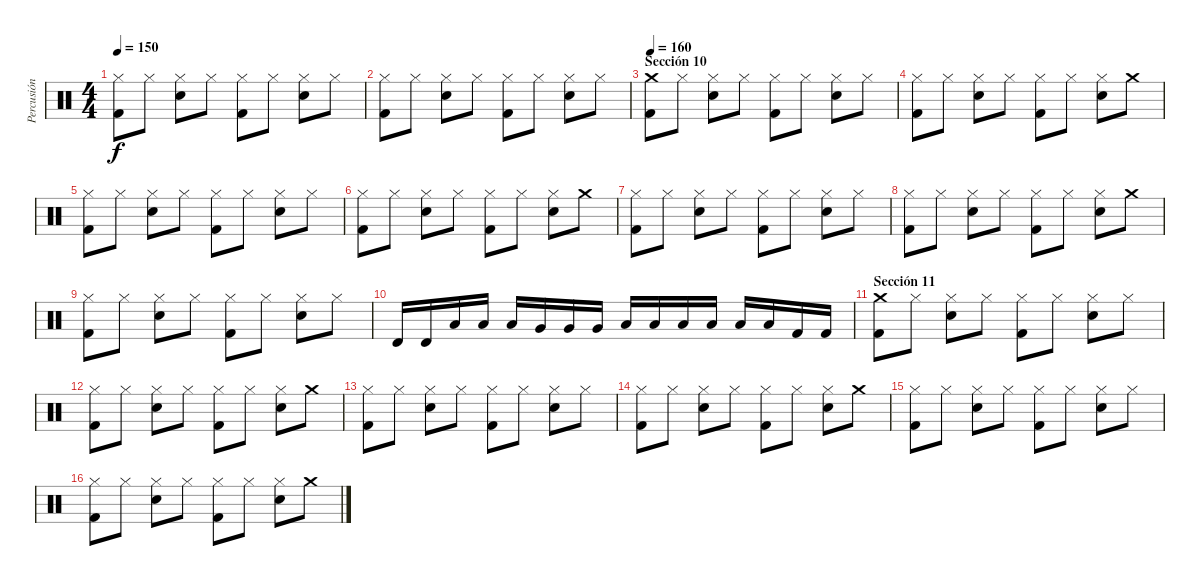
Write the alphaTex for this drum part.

\track ("Percusión" "Percusión") {instrument percussion}
\staff {score}
\articulation defaults
\ts (4 4)
\tempo 150
\clef neutral
\ks c
("Hi-Hat (closed)" "Kick (hit) 2").8{dy f} "Hi-Hat (closed)".8 ("Hi-Hat (closed)" "Snare (hit) 2").8 "Hi-Hat (closed)".8 ("Hi-Hat (closed)" "Kick (hit) 2").8 "Hi-Hat (closed)".8 ("Hi-Hat (closed)" "Snare (hit) 2").8 "Hi-Hat (closed)".8 |
("Hi-Hat (closed)" "Kick (hit) 2").8 "Hi-Hat (closed)".8 ("Hi-Hat (closed)" "Snare (hit) 2").8 "Hi-Hat (closed)".8 ("Hi-Hat (closed)" "Kick (hit) 2").8 "Hi-Hat (closed)".8 ("Hi-Hat (closed)" "Snare (hit) 2").8 "Hi-Hat (closed)".8 |
\section ("" "Sección 10")
\tempo 160
("Crash medium (hit)" "Kick (hit) 2").8 "Hi-Hat (closed)".8 ("Hi-Hat (closed)" "Snare (hit) 2").8 "Hi-Hat (closed)".8 ("Hi-Hat (closed)" "Kick (hit) 2").8 "Hi-Hat (closed)".8 ("Hi-Hat (closed)" "Snare (hit) 2").8 "Hi-Hat (closed)".8 |
("Hi-Hat (closed)" "Kick (hit) 2").8 "Hi-Hat (closed)".8 ("Hi-Hat (closed)" "Snare (hit) 2").8 "Hi-Hat (closed)".8 ("Hi-Hat (closed)" "Kick (hit) 2").8 "Hi-Hat (closed)".8 ("Hi-Hat (closed)" "Snare (hit) 2").8 "Crash medium (hit)".8 |
("Hi-Hat (closed)" "Kick (hit) 2").8 "Hi-Hat (closed)".8 ("Hi-Hat (closed)" "Snare (hit) 2").8 "Hi-Hat (closed)".8 ("Hi-Hat (closed)" "Kick (hit) 2").8 "Hi-Hat (closed)".8 ("Hi-Hat (closed)" "Snare (hit) 2").8 "Hi-Hat (closed)".8 |
("Hi-Hat (closed)" "Kick (hit) 2").8 "Hi-Hat (closed)".8 ("Hi-Hat (closed)" "Snare (hit) 2").8 "Hi-Hat (closed)".8 ("Hi-Hat (closed)" "Kick (hit) 2").8 "Hi-Hat (closed)".8 ("Hi-Hat (closed)" "Snare (hit) 2").8 "Crash medium (hit)".8 |
("Hi-Hat (closed)" "Kick (hit) 2").8 "Hi-Hat (closed)".8 ("Hi-Hat (closed)" "Snare (hit) 2").8 "Hi-Hat (closed)".8 ("Hi-Hat (closed)" "Kick (hit) 2").8 "Hi-Hat (closed)".8 ("Hi-Hat (closed)" "Snare (hit) 2").8 "Hi-Hat (closed)".8 |
("Hi-Hat (closed)" "Kick (hit) 2").8 "Hi-Hat (closed)".8 ("Hi-Hat (closed)" "Snare (hit) 2").8 "Hi-Hat (closed)".8 ("Hi-Hat (closed)" "Kick (hit) 2").8 "Hi-Hat (closed)".8 ("Hi-Hat (closed)" "Snare (hit) 2").8 "Crash medium (hit)".8 |
("Hi-Hat (closed)" "Kick (hit) 2").8 "Hi-Hat (closed)".8 ("Hi-Hat (closed)" "Snare (hit) 2").8 "Hi-Hat (closed)".8 ("Hi-Hat (closed)" "Kick (hit) 2").8 "Hi-Hat (closed)".8 ("Hi-Hat (closed)" "Snare (hit) 2").8 "Hi-Hat (closed)".8 |
"Timbale high (hit)".16 "Timbale high (hit)".16 "Low Tom (hit)".16 "Low Tom (hit)".16 "Low Tom (hit)".16 "Very Low Tom (hit)".16 "Very Low Tom (hit)".16 "Very Low Tom (hit)".16 "Low Floor Tom (hit)".16 "Low Floor Tom (hit)".16 "Low Floor Tom (hit)".16 "Low Floor Tom (hit)".16 "Low Floor Tom (hit)".16 "Low Floor Tom (hit)".16 "Kick (hit) 2".16 "Kick (hit) 2".16 |
\section ("" "Sección 11")
("Crash medium (hit)" "Kick (hit) 2").8 "Hi-Hat (closed)".8 ("Hi-Hat (closed)" "Snare (hit) 2").8 "Hi-Hat (closed)".8 ("Hi-Hat (closed)" "Kick (hit) 2").8 "Hi-Hat (closed)".8 ("Hi-Hat (closed)" "Snare (hit) 2").8 "Hi-Hat (closed)".8 |
("Hi-Hat (closed)" "Kick (hit) 2").8 "Hi-Hat (closed)".8 ("Hi-Hat (closed)" "Snare (hit) 2").8 "Hi-Hat (closed)".8 ("Hi-Hat (closed)" "Kick (hit) 2").8 "Hi-Hat (closed)".8 ("Hi-Hat (closed)" "Snare (hit) 2").8 "Crash medium (hit)".8 |
("Hi-Hat (closed)" "Kick (hit) 2").8 "Hi-Hat (closed)".8 ("Hi-Hat (closed)" "Snare (hit) 2").8 "Hi-Hat (closed)".8 ("Hi-Hat (closed)" "Kick (hit) 2").8 "Hi-Hat (closed)".8 ("Hi-Hat (closed)" "Snare (hit) 2").8 "Hi-Hat (closed)".8 |
("Hi-Hat (closed)" "Kick (hit) 2").8 "Hi-Hat (closed)".8 ("Hi-Hat (closed)" "Snare (hit) 2").8 "Hi-Hat (closed)".8 ("Hi-Hat (closed)" "Kick (hit) 2").8 "Hi-Hat (closed)".8 ("Hi-Hat (closed)" "Snare (hit) 2").8 "Crash medium (hit)".8 |
("Hi-Hat (closed)" "Kick (hit) 2").8 "Hi-Hat (closed)".8 ("Hi-Hat (closed)" "Snare (hit) 2").8 "Hi-Hat (closed)".8 ("Hi-Hat (closed)" "Kick (hit) 2").8 "Hi-Hat (closed)".8 ("Hi-Hat (closed)" "Snare (hit) 2").8 "Hi-Hat (closed)".8 |
("Hi-Hat (closed)" "Kick (hit) 2").8 "Hi-Hat (closed)".8 ("Hi-Hat (closed)" "Snare (hit) 2").8 "Hi-Hat (closed)".8 ("Hi-Hat (closed)" "Kick (hit) 2").8 "Hi-Hat (closed)".8 ("Hi-Hat (closed)" "Snare (hit) 2").8 "Crash medium (hit)".8
